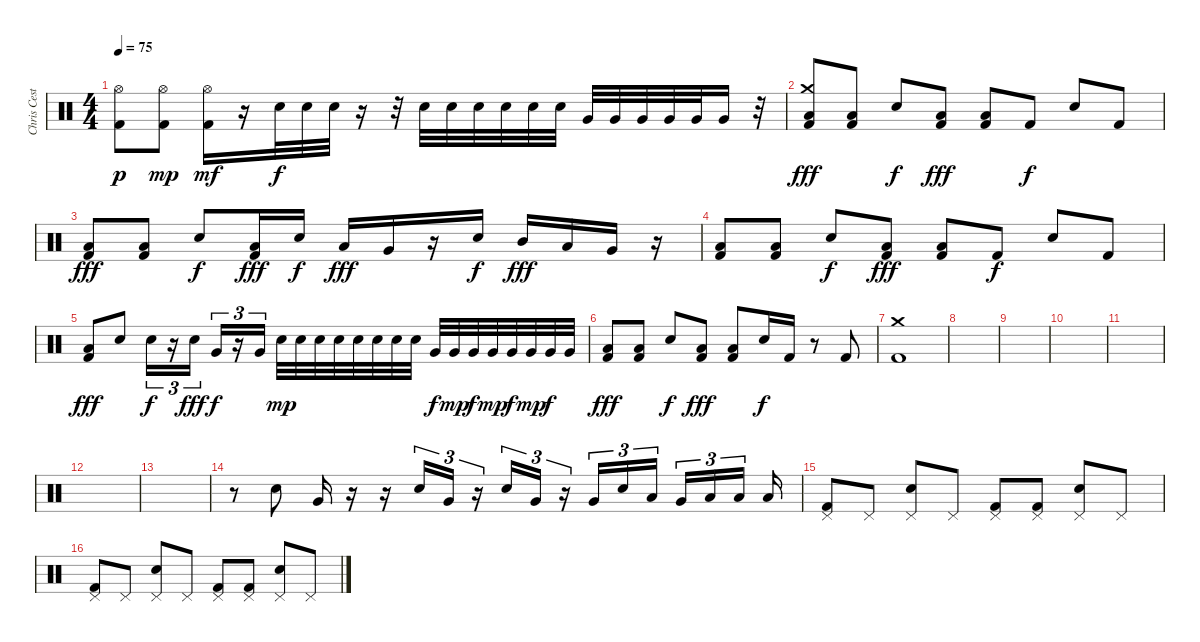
\track ("Chris Cester" "Chris Cest") {instrument percussion}
\staff {score}
\articulation defaults
\ts (4 4)
\tempo 75
\clef neutral
\ks c
("Hi-Hat (open)" "Kick (hit) 2").8{dy p} ("Hi-Hat (open)" "Kick (hit) 2").8{dy mp} ("Hi-Hat (open)" "Kick (hit) 2").16{dy mf} r.16 "Snare (hit) 2".32{dy f} "Snare (hit) 2".32 "Snare (hit) 2".32 r.16 r.32 "Snare (hit) 2".32 "Snare (hit) 2".32 "Snare (hit) 2".32 "Snare (hit) 2".32 "Snare (hit) 2".32 "Snare (hit) 2".32 "Very Low Tom (hit)".32 "Very Low Tom (hit)".32 "Very Low Tom (hit)".32 "Very Low Tom (hit)".32 "Very Low Tom (hit)".32 "Very Low Tom (hit)".16 r.32 |
("Crash medium (hit)" "Low Floor Tom (hit)" "Kick (hit) 2").8{dy fff} ("Low Floor Tom (hit)" "Kick (hit) 2").8 "Snare (hit) 2".8{dy f} ("Low Floor Tom (hit)" "Kick (hit) 2").8{dy fff} ("Low Floor Tom (hit)" "Kick (hit) 2").8 "Kick (hit) 2".8{dy f} "Snare (hit) 2".8 "Kick (hit) 2".8 |
("Low Floor Tom (hit)" "Kick (hit) 2").8{dy fff} ("Low Floor Tom (hit)" "Kick (hit) 2").8 "Snare (hit) 2".8{dy f} ("Low Floor Tom (hit)" "Kick (hit) 2").16{dy fff} "Snare (hit) 2".16{dy f} "Low Tom (hit)".16{dy fff} "Very Low Tom (hit)".16 r.16 "Snare (hit) 2".16{dy f} "Mid Tom (hit)".16{dy fff} "Low Tom (hit)".16 "Very Low Tom (hit)".16 r.16 |
("Low Floor Tom (hit)" "Kick (hit) 2").8 ("Low Floor Tom (hit)" "Kick (hit) 2").8 "Snare (hit) 2".8{dy f} ("Low Floor Tom (hit)" "Kick (hit) 2").8{dy fff} ("Low Floor Tom (hit)" "Kick (hit) 2").8 "Kick (hit) 2".8{dy f} "Snare (hit) 2".8 "Kick (hit) 2".8 |
("Low Floor Tom (hit)" "Kick (hit) 2").8{dy fff} "Snare (hit) 2".8 "Snare (hit) 2".16{tu (3 2) dy f} r.16{tu (3 2)} "Snare (hit) 2".16{tu (3 2) dy fff} "Very Low Tom (hit)".16{tu (3 2) dy f} r.16{tu (3 2)} "Very Low Tom (hit)".16{tu (3 2)} "Snare (hit) 2".32{dy mp} "Snare (hit) 2".32 "Snare (hit) 2".32 "Snare (hit) 2".32 "Snare (hit) 2".32 "Snare (hit) 2".32 "Snare (hit) 2".32 "Snare (hit) 2".32 "Very Low Tom (hit)".32{dy f} "Very Low Tom (hit)".32{dy mp} "Very Low Tom (hit)".32{dy f} "Very Low Tom (hit)".32{dy mp} "Very Low Tom (hit)".32{dy f} "Very Low Tom (hit)".32{dy mp} "Very Low Tom (hit)".32{dy f} "Very Low Tom (hit)".32 |
("Low Floor Tom (hit)" "Kick (hit) 2").8{dy fff} ("Low Floor Tom (hit)" "Kick (hit) 2").8 "Snare (hit) 2".8{dy f} ("Low Floor Tom (hit)" "Kick (hit) 2").8{dy fff} ("Low Floor Tom (hit)" "Kick (hit) 2").8 "Snare (hit) 2".16{dy f} "Kick (hit) 2".16 r.8 "Kick (hit) 2".8 |
("Crash medium (hit)" "Kick (hit) 2").1 |
|
|
|
|
|
|
r.8 "Snare (hit) 2".8 "Very Low Tom (hit)".16 r.16 r.16 "Snare (hit) 2".16{tu (3 2)} "Very Low Tom (hit)".16{tu (3 2)} r.16{tu (3 2)} "Snare (hit) 2".16{tu (3 2)} "Very Low Tom (hit)".16{tu (3 2)} r.16{tu (3 2)} "Very Low Tom (hit)".16{tu (3 2)} "Snare (hit) 2".16{tu (3 2)} "Low Tom (hit)".16{tu (3 2)} "Very Low Tom (hit)".16{tu (3 2)} "Low Floor Tom (hit)".16{tu (3 2)} "Low Floor Tom (hit)".16{tu (3 2)} "Low Floor Tom (hit)".16 |
("Pedal Hi-Hat (hit)" "Kick (hit) 2").8 "Pedal Hi-Hat (hit)".8 ("Pedal Hi-Hat (hit)" "Snare (hit) 2").8 "Pedal Hi-Hat (hit)".8 ("Pedal Hi-Hat (hit)" "Kick (hit) 2").8 ("Pedal Hi-Hat (hit)" "Kick (hit) 2").8 ("Pedal Hi-Hat (hit)" "Snare (hit) 2").8 "Pedal Hi-Hat (hit)".8 |
("Pedal Hi-Hat (hit)" "Kick (hit) 2").8 "Pedal Hi-Hat (hit)".8 ("Pedal Hi-Hat (hit)" "Snare (hit) 2").8 "Pedal Hi-Hat (hit)".8 ("Pedal Hi-Hat (hit)" "Kick (hit) 2").8 ("Pedal Hi-Hat (hit)" "Kick (hit) 2").8 ("Pedal Hi-Hat (hit)" "Snare (hit) 2").8 "Pedal Hi-Hat (hit)".8
